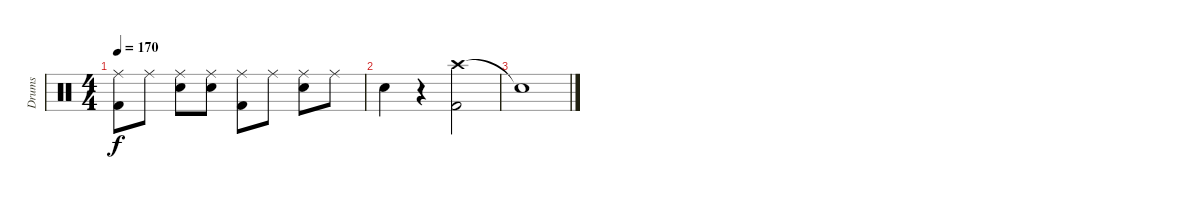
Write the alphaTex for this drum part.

\track ("Drums" "Drums") {instrument percussion}
\staff {score}
\articulation defaults
\ts (4 4)
\tempo 170
\clef neutral
\ks c
("Ride (middle)" "Kick (hit) 2").8{dy f} "Ride (middle)".8 ("Ride (middle)" "Snare (hit) 2").8 ("Ride (middle)" "Snare (hit) 2").8 ("Ride (middle)" "Kick (hit) 2").8 "Ride (middle)".8 ("Ride (middle)" "Snare (hit) 2").8 "Ride (middle)".8 |
"Snare (hit) 2".4 r.4 ("Crash high (hit)" "Kick (hit) 2").2 |
"Snare (hit)"{t}.1
